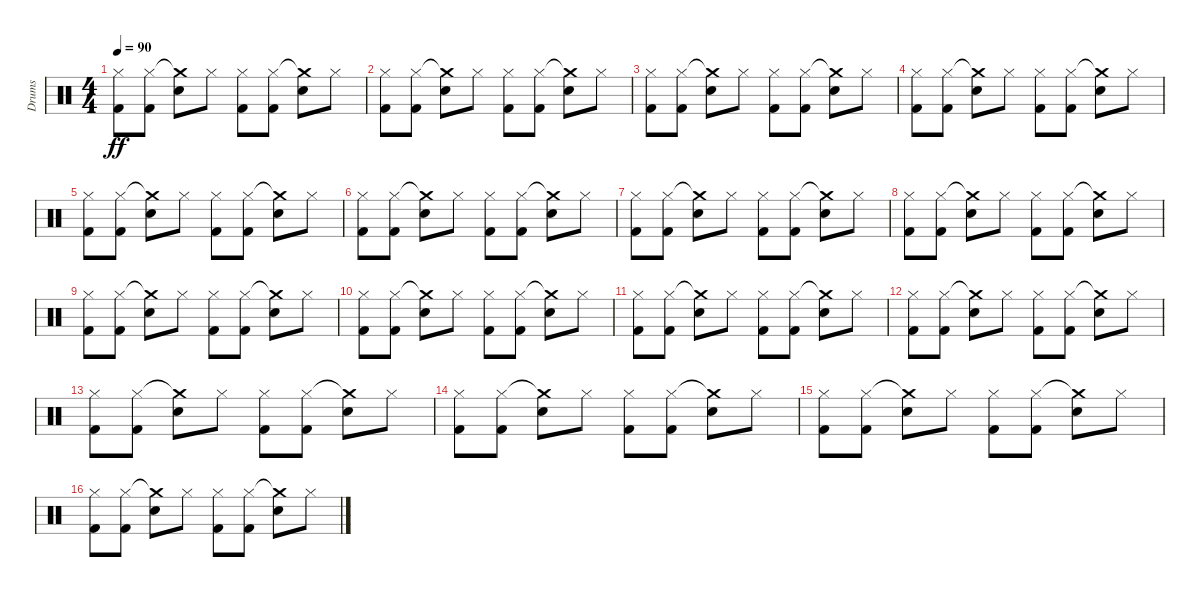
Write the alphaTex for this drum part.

\track ("Drums" "Drums") {instrument percussion}
\staff {score}
\articulation defaults
\ts (4 4)
\tempo 90
\clef neutral
\ks c
("Kick (hit) 2" "Hi-Hat (closed)").8{dy ff} ("Kick (hit) 2" "Hi-Hat (closed)").8 ("Electric Snare (hit)" "Crash medium (hit)"{t}).8 "Hi-Hat (closed)".8 ("Kick (hit) 2" "Hi-Hat (closed)").8 ("Kick (hit) 2" "Hi-Hat (closed)").8 ("Electric Snare (hit)" "Crash medium (hit)"{t}).8 "Hi-Hat (closed)".8 |
("Kick (hit) 2" "Hi-Hat (closed)").8 ("Kick (hit) 2" "Hi-Hat (closed)").8 ("Electric Snare (hit)" "Crash medium (hit)"{t}).8 "Hi-Hat (closed)".8 ("Kick (hit) 2" "Hi-Hat (closed)").8 ("Kick (hit) 2" "Hi-Hat (closed)").8 ("Electric Snare (hit)" "Crash medium (hit)"{t}).8 "Hi-Hat (closed)".8 |
("Kick (hit) 2" "Hi-Hat (closed)").8 ("Kick (hit) 2" "Hi-Hat (closed)").8 ("Electric Snare (hit)" "Crash medium (hit)"{t}).8 "Hi-Hat (closed)".8 ("Kick (hit) 2" "Hi-Hat (closed)").8 ("Kick (hit) 2" "Hi-Hat (closed)").8 ("Electric Snare (hit)" "Crash medium (hit)"{t}).8 "Hi-Hat (closed)".8 |
("Kick (hit) 2" "Hi-Hat (closed)").8 ("Kick (hit) 2" "Hi-Hat (closed)").8 ("Electric Snare (hit)" "Crash medium (hit)"{t}).8 "Hi-Hat (closed)".8 ("Kick (hit) 2" "Hi-Hat (closed)").8 ("Kick (hit) 2" "Hi-Hat (closed)").8 ("Electric Snare (hit)" "Crash medium (hit)"{t}).8 "Hi-Hat (closed)".8 |
("Kick (hit) 2" "Hi-Hat (closed)").8 ("Kick (hit) 2" "Hi-Hat (closed)").8 ("Electric Snare (hit)" "Crash medium (hit)"{t}).8 "Hi-Hat (closed)".8 ("Kick (hit) 2" "Hi-Hat (closed)").8 ("Kick (hit) 2" "Hi-Hat (closed)").8 ("Electric Snare (hit)" "Crash medium (hit)"{t}).8 "Hi-Hat (closed)".8 |
("Kick (hit) 2" "Hi-Hat (closed)").8 ("Kick (hit) 2" "Hi-Hat (closed)").8 ("Electric Snare (hit)" "Crash medium (hit)"{t}).8 "Hi-Hat (closed)".8 ("Kick (hit) 2" "Hi-Hat (closed)").8 ("Kick (hit) 2" "Hi-Hat (closed)").8 ("Electric Snare (hit)" "Crash medium (hit)"{t}).8 "Hi-Hat (closed)".8 |
("Kick (hit) 2" "Hi-Hat (closed)").8 ("Kick (hit) 2" "Hi-Hat (closed)").8 ("Electric Snare (hit)" "Crash medium (hit)"{t}).8 "Hi-Hat (closed)".8 ("Kick (hit) 2" "Hi-Hat (closed)").8 ("Kick (hit) 2" "Hi-Hat (closed)").8 ("Electric Snare (hit)" "Crash medium (hit)"{t}).8 "Hi-Hat (closed)".8 |
("Kick (hit) 2" "Hi-Hat (closed)").8 ("Kick (hit) 2" "Hi-Hat (closed)").8 ("Electric Snare (hit)" "Crash medium (hit)"{t}).8 "Hi-Hat (closed)".8 ("Kick (hit) 2" "Hi-Hat (closed)").8 ("Kick (hit) 2" "Hi-Hat (closed)").8 ("Electric Snare (hit)" "Crash medium (hit)"{t}).8 "Hi-Hat (closed)".8 |
("Kick (hit) 2" "Hi-Hat (closed)").8 ("Kick (hit) 2" "Hi-Hat (closed)").8 ("Electric Snare (hit)" "Crash medium (hit)"{t}).8 "Hi-Hat (closed)".8 ("Kick (hit) 2" "Hi-Hat (closed)").8 ("Kick (hit) 2" "Hi-Hat (closed)").8 ("Electric Snare (hit)" "Crash medium (hit)"{t}).8 "Hi-Hat (closed)".8 |
("Kick (hit) 2" "Hi-Hat (closed)").8 ("Kick (hit) 2" "Hi-Hat (closed)").8 ("Electric Snare (hit)" "Crash medium (hit)"{t}).8 "Hi-Hat (closed)".8 ("Kick (hit) 2" "Hi-Hat (closed)").8 ("Kick (hit) 2" "Hi-Hat (closed)").8 ("Electric Snare (hit)" "Crash medium (hit)"{t}).8 "Hi-Hat (closed)".8 |
("Kick (hit) 2" "Hi-Hat (closed)").8 ("Kick (hit) 2" "Hi-Hat (closed)").8 ("Electric Snare (hit)" "Crash medium (hit)"{t}).8 "Hi-Hat (closed)".8 ("Kick (hit) 2" "Hi-Hat (closed)").8 ("Kick (hit) 2" "Hi-Hat (closed)").8 ("Electric Snare (hit)" "Crash medium (hit)"{t}).8 "Hi-Hat (closed)".8 |
("Kick (hit) 2" "Hi-Hat (closed)").8 ("Kick (hit) 2" "Hi-Hat (closed)").8 ("Electric Snare (hit)" "Crash medium (hit)"{t}).8 "Hi-Hat (closed)".8 ("Kick (hit) 2" "Hi-Hat (closed)").8 ("Kick (hit) 2" "Hi-Hat (closed)").8 ("Electric Snare (hit)" "Crash medium (hit)"{t}).8 "Hi-Hat (closed)".8 |
("Kick (hit) 2" "Hi-Hat (closed)").8 ("Kick (hit) 2" "Hi-Hat (closed)").8 ("Electric Snare (hit)" "Crash medium (hit)"{t}).8 "Hi-Hat (closed)".8 ("Kick (hit) 2" "Hi-Hat (closed)").8 ("Kick (hit) 2" "Hi-Hat (closed)").8 ("Electric Snare (hit)" "Crash medium (hit)"{t}).8 "Hi-Hat (closed)".8 |
("Kick (hit) 2" "Hi-Hat (closed)").8 ("Kick (hit) 2" "Hi-Hat (closed)").8 ("Electric Snare (hit)" "Crash medium (hit)"{t}).8 "Hi-Hat (closed)".8 ("Kick (hit) 2" "Hi-Hat (closed)").8 ("Kick (hit) 2" "Hi-Hat (closed)").8 ("Electric Snare (hit)" "Crash medium (hit)"{t}).8 "Hi-Hat (closed)".8 |
("Kick (hit) 2" "Hi-Hat (closed)").8 ("Kick (hit) 2" "Hi-Hat (closed)").8 ("Electric Snare (hit)" "Crash medium (hit)"{t}).8 "Hi-Hat (closed)".8 ("Kick (hit) 2" "Hi-Hat (closed)").8 ("Kick (hit) 2" "Hi-Hat (closed)").8 ("Electric Snare (hit)" "Crash medium (hit)"{t}).8 "Hi-Hat (closed)".8 |
("Kick (hit) 2" "Hi-Hat (closed)").8 ("Kick (hit) 2" "Hi-Hat (closed)").8 ("Electric Snare (hit)" "Crash medium (hit)"{t}).8 "Hi-Hat (closed)".8 ("Kick (hit) 2" "Hi-Hat (closed)").8 ("Kick (hit) 2" "Hi-Hat (closed)").8 ("Electric Snare (hit)" "Crash medium (hit)"{t}).8 "Hi-Hat (closed)".8
